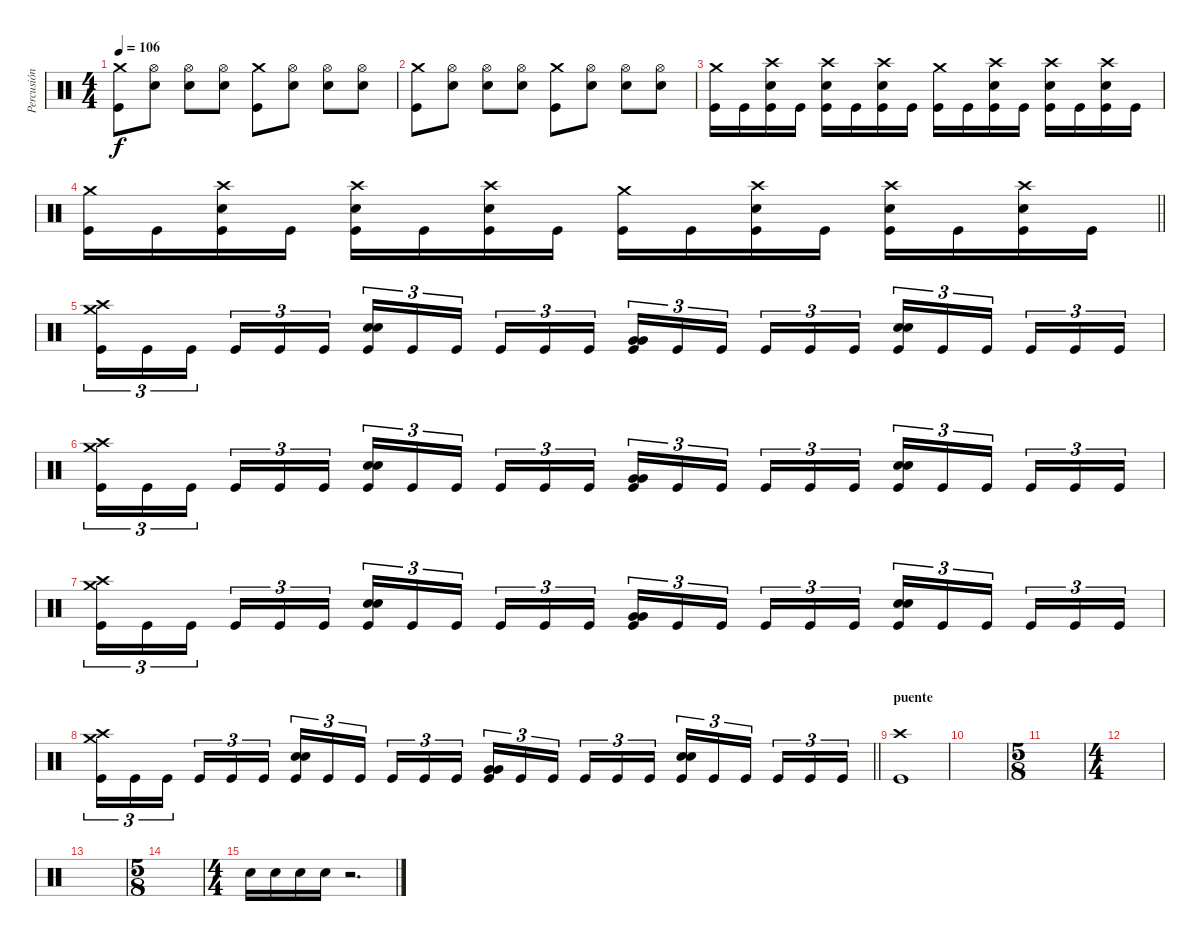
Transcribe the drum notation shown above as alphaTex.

\track ("Percusión" "Percusión") {instrument percussion}
\staff
\articulation defaults
\ts (4 4)
\tempo 106
\clef neutral
\ks c
("Kick (hit)" "Crash medium (hit)").8{dy f} ("Hi-Hat (open)" "Electric Snare (hit)").8 ("Hi-Hat (open)" "Electric Snare (hit)").8 ("Hi-Hat (open)" "Electric Snare (hit)").8 ("Kick (hit)" "Crash medium (hit)").8 ("Hi-Hat (open)" "Electric Snare (hit)").8 ("Hi-Hat (open)" "Electric Snare (hit)").8 ("Hi-Hat (open)" "Electric Snare (hit)").8 |
("Kick (hit)" "Crash medium (hit)").8 ("Hi-Hat (open)" "Electric Snare (hit)").8 ("Hi-Hat (open)" "Electric Snare (hit)").8 ("Hi-Hat (open)" "Electric Snare (hit)").8 ("Kick (hit)" "Crash medium (hit)").8 ("Hi-Hat (open)" "Electric Snare (hit)").8 ("Hi-Hat (open)" "Electric Snare (hit)").8 ("Hi-Hat (open)" "Electric Snare (hit)").8 |
("Kick (hit)" "Crash medium (hit)").16 "Kick (hit)".16 ("Kick (hit)" "Crash high (hit)" "Electric Snare (hit)").16 "Kick (hit)".16 ("Kick (hit)" "Crash high (hit)" "Electric Snare (hit)").16 "Kick (hit)".16 ("Kick (hit)" "Crash high (hit)" "Electric Snare (hit)").16 "Kick (hit)".16 ("Kick (hit)" "Crash medium (hit)").16 "Kick (hit)".16 ("Kick (hit)" "Crash high (hit)" "Electric Snare (hit)").16 "Kick (hit)".16 ("Kick (hit)" "Crash high (hit)" "Electric Snare (hit)").16 "Kick (hit)".16 ("Kick (hit)" "Crash high (hit)" "Electric Snare (hit)").16 "Kick (hit)".16 |
\barLineRight lightlight
("Kick (hit)" "Crash medium (hit)").16 "Kick (hit)".16 ("Kick (hit)" "Crash high (hit)" "Electric Snare (hit)").16 "Kick (hit)".16 ("Kick (hit)" "Crash high (hit)" "Electric Snare (hit)").16 "Kick (hit)".16 ("Kick (hit)" "Crash high (hit)" "Electric Snare (hit)").16 "Kick (hit)".16 ("Kick (hit)" "Crash medium (hit)").16 "Kick (hit)".16 ("Kick (hit)" "Crash high (hit)" "Electric Snare (hit)").16 "Kick (hit)".16 ("Kick (hit)" "Crash high (hit)" "Electric Snare (hit)").16 "Kick (hit)".16 ("Kick (hit)" "Crash high (hit)" "Electric Snare (hit)").16 "Kick (hit)".16 |
("Kick (hit)" "Crash high (hit)" "Crash medium (hit)").16{tu (3 2)} "Kick (hit)".16{tu (3 2)} "Kick (hit)".16{tu (3 2) beam splitsecondary} "Kick (hit)".16{tu (3 2)} "Kick (hit)".16{tu (3 2)} "Kick (hit)".16{tu (3 2)} ("Kick (hit)" "Electric Snare (hit)" "Electric Snare (hit)").16{tu (3 2)} "Kick (hit)".16{tu (3 2)} "Kick (hit)".16{tu (3 2) beam splitsecondary} "Kick (hit)".16{tu (3 2)} "Kick (hit)".16{tu (3 2)} "Kick (hit)".16{tu (3 2)} ("Kick (hit)" "Very Low Tom (hit)" "Very Low Tom (hit)").16{tu (3 2)} "Kick (hit)".16{tu (3 2)} "Kick (hit)".16{tu (3 2) beam splitsecondary} "Kick (hit)".16{tu (3 2)} "Kick (hit)".16{tu (3 2)} "Kick (hit)".16{tu (3 2)} ("Kick (hit)" "Electric Snare (hit)" "Electric Snare (hit)").16{tu (3 2)} "Kick (hit)".16{tu (3 2)} "Kick (hit)".16{tu (3 2) beam splitsecondary} "Kick (hit)".16{tu (3 2)} "Kick (hit)".16{tu (3 2)} "Kick (hit)".16{tu (3 2)} |
("Kick (hit)" "Crash high (hit)" "Crash medium (hit)").16{tu (3 2)} "Kick (hit)".16{tu (3 2)} "Kick (hit)".16{tu (3 2) beam splitsecondary} "Kick (hit)".16{tu (3 2)} "Kick (hit)".16{tu (3 2)} "Kick (hit)".16{tu (3 2)} ("Kick (hit)" "Electric Snare (hit)" "Electric Snare (hit)").16{tu (3 2)} "Kick (hit)".16{tu (3 2)} "Kick (hit)".16{tu (3 2) beam splitsecondary} "Kick (hit)".16{tu (3 2)} "Kick (hit)".16{tu (3 2)} "Kick (hit)".16{tu (3 2)} ("Kick (hit)" "Very Low Tom (hit)" "Very Low Tom (hit)").16{tu (3 2)} "Kick (hit)".16{tu (3 2)} "Kick (hit)".16{tu (3 2) beam splitsecondary} "Kick (hit)".16{tu (3 2)} "Kick (hit)".16{tu (3 2)} "Kick (hit)".16{tu (3 2)} ("Kick (hit)" "Electric Snare (hit)" "Electric Snare (hit)").16{tu (3 2)} "Kick (hit)".16{tu (3 2)} "Kick (hit)".16{tu (3 2) beam splitsecondary} "Kick (hit)".16{tu (3 2)} "Kick (hit)".16{tu (3 2)} "Kick (hit)".16{tu (3 2)} |
("Kick (hit)" "Crash high (hit)" "Crash medium (hit)").16{tu (3 2)} "Kick (hit)".16{tu (3 2)} "Kick (hit)".16{tu (3 2) beam splitsecondary} "Kick (hit)".16{tu (3 2)} "Kick (hit)".16{tu (3 2)} "Kick (hit)".16{tu (3 2)} ("Kick (hit)" "Electric Snare (hit)" "Electric Snare (hit)").16{tu (3 2)} "Kick (hit)".16{tu (3 2)} "Kick (hit)".16{tu (3 2) beam splitsecondary} "Kick (hit)".16{tu (3 2)} "Kick (hit)".16{tu (3 2)} "Kick (hit)".16{tu (3 2)} ("Kick (hit)" "Very Low Tom (hit)" "Very Low Tom (hit)").16{tu (3 2)} "Kick (hit)".16{tu (3 2)} "Kick (hit)".16{tu (3 2) beam splitsecondary} "Kick (hit)".16{tu (3 2)} "Kick (hit)".16{tu (3 2)} "Kick (hit)".16{tu (3 2)} ("Kick (hit)" "Electric Snare (hit)" "Electric Snare (hit)").16{tu (3 2)} "Kick (hit)".16{tu (3 2)} "Kick (hit)".16{tu (3 2) beam splitsecondary} "Kick (hit)".16{tu (3 2)} "Kick (hit)".16{tu (3 2)} "Kick (hit)".16{tu (3 2)} |
\barLineRight lightlight
("Kick (hit)" "Crash high (hit)" "Crash medium (hit)").16{tu (3 2)} "Kick (hit)".16{tu (3 2)} "Kick (hit)".16{tu (3 2) beam splitsecondary} "Kick (hit)".16{tu (3 2)} "Kick (hit)".16{tu (3 2)} "Kick (hit)".16{tu (3 2)} ("Kick (hit)" "Electric Snare (hit)" "Electric Snare (hit)").16{tu (3 2)} "Kick (hit)".16{tu (3 2)} "Kick (hit)".16{tu (3 2) beam splitsecondary} "Kick (hit)".16{tu (3 2)} "Kick (hit)".16{tu (3 2)} "Kick (hit)".16{tu (3 2)} ("Kick (hit)" "Very Low Tom (hit)" "Very Low Tom (hit)").16{tu (3 2)} "Kick (hit)".16{tu (3 2)} "Kick (hit)".16{tu (3 2) beam splitsecondary} "Kick (hit)".16{tu (3 2)} "Kick (hit)".16{tu (3 2)} "Kick (hit)".16{tu (3 2)} ("Kick (hit)" "Electric Snare (hit)" "Electric Snare (hit)").16{tu (3 2)} "Kick (hit)".16{tu (3 2)} "Kick (hit)".16{tu (3 2) beam splitsecondary} "Kick (hit)".16{tu (3 2)} "Kick (hit)".16{tu (3 2)} "Kick (hit)".16{tu (3 2)} |
\section ("" "puente")
("Kick (hit)" "Crash high (hit)").1 |
|
\ts (5 8)
|
\ts (4 4)
|
|
\ts (5 8)
|
\ts (4 4)
"Electric Snare (hit)".16 "Electric Snare (hit)".16 "Electric Snare (hit)".16 "Electric Snare (hit)".16 r.2{d}
